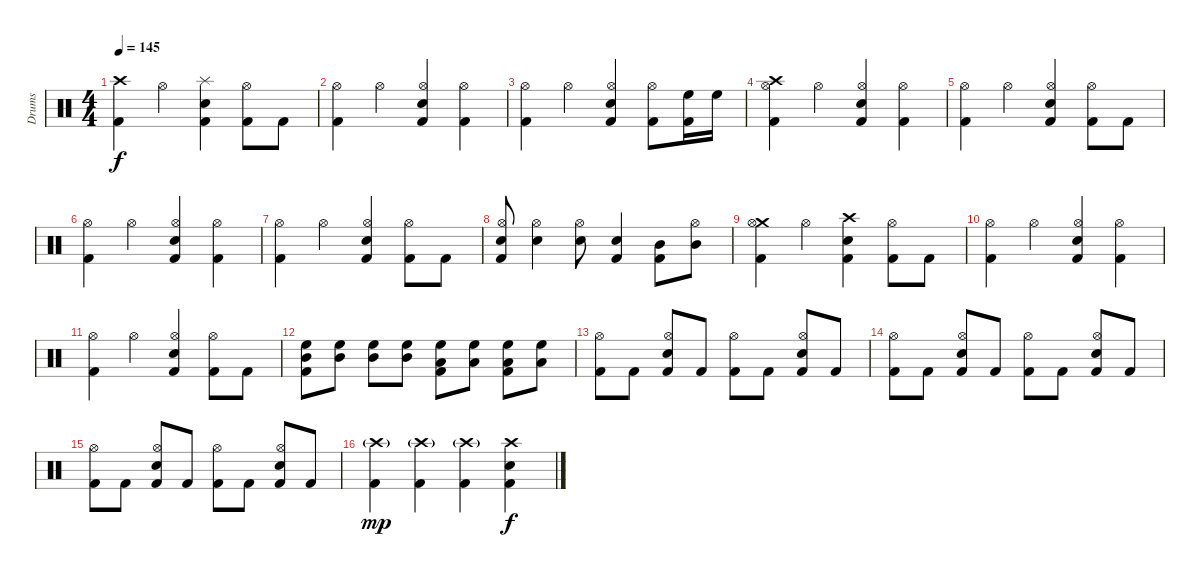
\track ("Drums" "Drums") {instrument percussion}
\staff {score}
\articulation defaults
\ts (4 4)
\tempo 145
\clef neutral
\ks c
("Crash high (hit)" "Kick (hit) 2").4{dy f} "Hi-Hat (open)".4 ("Snare (hit) 2" "Splash (hit)" "Kick (hit) 2").4 ("Hi-Hat (open)" "Kick (hit) 2").8 "Kick (hit) 2".8 |
("Hi-Hat (open)" "Kick (hit) 2").4 "Hi-Hat (open)".4 ("Snare (hit) 2" "Hi-Hat (open)" "Kick (hit) 2").4 ("Hi-Hat (open)" "Kick (hit) 2").4 |
("Hi-Hat (open)" "Kick (hit) 2").4 "Hi-Hat (open)".4 ("Snare (hit) 2" "Hi-Hat (open)" "Kick (hit) 2").4 ("Hi-Hat (open)" "Kick (hit) 2").8 ("High Floor Tom (hit)" "Kick (hit) 2").16 "High Floor Tom (hit)".16 |
("Crash high (hit)" "Hi-Hat (open)" "Kick (hit) 2").4 "Hi-Hat (open)".4 ("Snare (hit) 2" "Hi-Hat (open)" "Kick (hit) 2").4 ("Hi-Hat (open)" "Kick (hit) 2").4 |
("Hi-Hat (open)" "Kick (hit) 2").4 "Hi-Hat (open)".4 ("Snare (hit) 2" "Hi-Hat (open)" "Kick (hit) 2").4 ("Hi-Hat (open)" "Kick (hit) 2").8 "Kick (hit) 2".8 |
("Hi-Hat (open)" "Kick (hit) 2").4 "Hi-Hat (open)".4 ("Snare (hit) 2" "Hi-Hat (open)" "Kick (hit) 2").4 ("Hi-Hat (open)" "Kick (hit) 2").4 |
("Hi-Hat (open)" "Kick (hit) 2").4 "Hi-Hat (open)".4 ("Snare (hit) 2" "Hi-Hat (open)" "Kick (hit) 2").4 ("Hi-Hat (open)" "Kick (hit) 2").8 "Kick (hit) 2".8 |
("Snare (hit) 2" "Hi-Hat (open)" "Kick (hit) 2").8 ("Snare (hit) 2" "Hi-Hat (open)").4 ("Snare (hit) 2" "Hi-Hat (open)").8 ("Snare (hit) 2" "Kick (hit) 2").4 ("Mid Tom (hit)" "Kick (hit) 2").8 ("Mid Tom (hit)" "Hi-Hat (open)").8 |
("Crash medium (hit)" "Hi-Hat (open)" "Kick (hit) 2").4 "Hi-Hat (open)".4 ("Snare (hit) 2" "Crash high (hit)" "Kick (hit) 2").4 ("Hi-Hat (open)" "Kick (hit) 2").8 "Kick (hit) 2".8 |
("Hi-Hat (open)" "Kick (hit) 2").4 "Hi-Hat (open)".4 ("Snare (hit) 2" "Hi-Hat (open)" "Kick (hit) 2").4 ("Hi-Hat (open)" "Kick (hit) 2").4 |
("Hi-Hat (open)" "Kick (hit) 2").4 "Hi-Hat (open)".4 ("Snare (hit) 2" "Hi-Hat (open)" "Kick (hit) 2").4 ("Hi-Hat (open)" "Kick (hit) 2").8 "Kick (hit) 2".8 |
("Mid Tom (hit)" "High Floor Tom (hit)" "Kick (hit) 2").8 ("Mid Tom (hit)" "High Floor Tom (hit)").8 ("Mid Tom (hit)" "High Floor Tom (hit)").8 ("Mid Tom (hit)" "High Floor Tom (hit)").8 ("Low Floor Tom (hit)" "High Floor Tom (hit)" "Kick (hit) 2").8 ("Low Floor Tom (hit)" "High Floor Tom (hit)").8 ("Low Floor Tom (hit)" "High Floor Tom (hit)" "Kick (hit) 2").8 ("Low Floor Tom (hit)" "High Floor Tom (hit)").8 |
("Hi-Hat (open)" "Kick (hit) 2").8 "Kick (hit) 2".8 ("Snare (hit) 2" "Hi-Hat (open)" "Kick (hit) 2").8 "Kick (hit) 2".8 ("Hi-Hat (open)" "Kick (hit) 2").8 "Kick (hit) 2".8 ("Snare (hit) 2" "Hi-Hat (open)" "Kick (hit) 2").8 "Kick (hit) 2".8 |
("Hi-Hat (open)" "Kick (hit) 2").8 "Kick (hit) 2".8 ("Snare (hit) 2" "Hi-Hat (open)" "Kick (hit) 2").8 "Kick (hit) 2".8 ("Hi-Hat (open)" "Kick (hit) 2").8 "Kick (hit) 2".8 ("Snare (hit) 2" "Hi-Hat (open)" "Kick (hit) 2").8 "Kick (hit) 2".8 |
("Hi-Hat (open)" "Kick (hit) 2").8 "Kick (hit) 2".8 ("Snare (hit) 2" "Hi-Hat (open)" "Kick (hit) 2").8 "Kick (hit) 2".8 ("Hi-Hat (open)" "Kick (hit) 2").8 "Kick (hit) 2".8 ("Snare (hit) 2" "Hi-Hat (open)" "Kick (hit) 2").8 "Kick (hit) 2".8 |
("Crash high (hit)"{g} "Kick (hit) 2").4{dy mp} ("Crash high (hit)"{g} "Kick (hit) 2").4 ("Crash high (hit)"{g} "Kick (hit) 2").4 ("Snare (hit) 2" "Crash high (hit)" "Kick (hit) 2").4{dy f}
